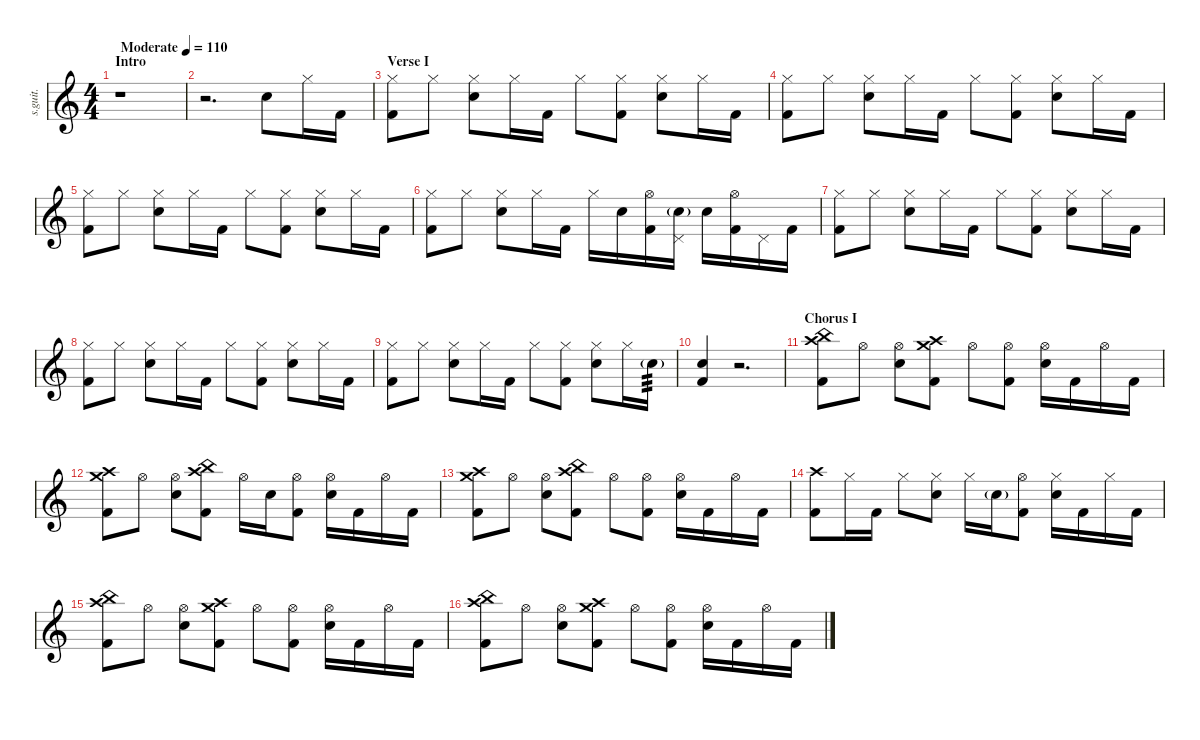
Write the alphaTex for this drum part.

\defaultSystemsLayout 4
\hideDynamics
\bracketExtendMode nobrackets
\track ("John Otto" "s.guit.") {instrument percussion}
\staff {score}
\articulation defaults
\ts (4 4)
\beaming (8 2 2 2 2)
\section ("" "Intro")
\tempo (110 "Moderate")
\clef g2
\ks c
r.1{dy ff} |
r.2{d} "Snare (hit) 2".8{lyrics (0 "") lyrics (1 "") lyrics (2 "") lyrics (3 "") lyrics (4 "")} "Hi-Hat (closed)".16{lyrics (0 "") lyrics (1 "") lyrics (2 "") lyrics (3 "") lyrics (4 "")} "Kick (hit) 2".16{lyrics (0 "") lyrics (1 "") lyrics (2 "") lyrics (3 "") lyrics (4 "")} |
\section ("" "Verse I")
("Kick (hit) 2" "Hi-Hat (closed)").8{lyrics (0 "") lyrics (1 "") lyrics (2 "") lyrics (3 "") lyrics (4 "")} "Hi-Hat (closed)".8{lyrics (0 "") lyrics (1 "") lyrics (2 "") lyrics (3 "") lyrics (4 "")} ("Hi-Hat (closed)" "Snare (hit) 2").8{lyrics (0 "") lyrics (1 "") lyrics (2 "") lyrics (3 "") lyrics (4 "")} "Hi-Hat (closed)".16{lyrics (0 "") lyrics (1 "") lyrics (2 "") lyrics (3 "") lyrics (4 "")} "Kick (hit) 2".16{lyrics (0 "") lyrics (1 "") lyrics (2 "") lyrics (3 "") lyrics (4 "")} "Hi-Hat (closed)".8{lyrics (0 "") lyrics (1 "") lyrics (2 "") lyrics (3 "") lyrics (4 "")} ("Kick (hit) 2" "Hi-Hat (closed)").8{lyrics (0 "") lyrics (1 "") lyrics (2 "") lyrics (3 "") lyrics (4 "")} ("Hi-Hat (closed)" "Snare (hit) 2").8{lyrics (0 "") lyrics (1 "") lyrics (2 "") lyrics (3 "") lyrics (4 "")} "Hi-Hat (closed)".16{lyrics (0 "") lyrics (1 "") lyrics (2 "") lyrics (3 "") lyrics (4 "")} "Kick (hit) 2".16{lyrics (0 "") lyrics (1 "") lyrics (2 "") lyrics (3 "") lyrics (4 "")} |
("Kick (hit) 2" "Hi-Hat (closed)").8{lyrics (0 "") lyrics (1 "") lyrics (2 "") lyrics (3 "") lyrics (4 "")} "Hi-Hat (closed)".8{lyrics (0 "") lyrics (1 "") lyrics (2 "") lyrics (3 "") lyrics (4 "")} ("Hi-Hat (closed)" "Snare (hit) 2").8{lyrics (0 "") lyrics (1 "") lyrics (2 "") lyrics (3 "") lyrics (4 "")} "Hi-Hat (closed)".16{lyrics (0 "") lyrics (1 "") lyrics (2 "") lyrics (3 "") lyrics (4 "")} "Kick (hit) 2".16{lyrics (0 "") lyrics (1 "") lyrics (2 "") lyrics (3 "") lyrics (4 "")} "Hi-Hat (closed)".8{lyrics (0 "") lyrics (1 "") lyrics (2 "") lyrics (3 "") lyrics (4 "")} ("Kick (hit) 2" "Hi-Hat (closed)").8{lyrics (0 "") lyrics (1 "") lyrics (2 "") lyrics (3 "") lyrics (4 "")} ("Hi-Hat (closed)" "Snare (hit) 2").8{lyrics (0 "") lyrics (1 "") lyrics (2 "") lyrics (3 "") lyrics (4 "")} "Hi-Hat (closed)".16{lyrics (0 "") lyrics (1 "") lyrics (2 "") lyrics (3 "") lyrics (4 "")} "Kick (hit) 2".16{lyrics (0 "") lyrics (1 "") lyrics (2 "") lyrics (3 "") lyrics (4 "")} |
("Kick (hit) 2" "Hi-Hat (closed)").8{lyrics (0 "") lyrics (1 "") lyrics (2 "") lyrics (3 "") lyrics (4 "")} "Hi-Hat (closed)".8{lyrics (0 "") lyrics (1 "") lyrics (2 "") lyrics (3 "") lyrics (4 "")} ("Hi-Hat (closed)" "Snare (hit) 2").8{lyrics (0 "") lyrics (1 "") lyrics (2 "") lyrics (3 "") lyrics (4 "")} "Hi-Hat (closed)".16{lyrics (0 "") lyrics (1 "") lyrics (2 "") lyrics (3 "") lyrics (4 "")} "Kick (hit) 2".16{lyrics (0 "") lyrics (1 "") lyrics (2 "") lyrics (3 "") lyrics (4 "")} "Hi-Hat (closed)".8{lyrics (0 "") lyrics (1 "") lyrics (2 "") lyrics (3 "") lyrics (4 "")} ("Kick (hit) 2" "Hi-Hat (closed)").8{lyrics (0 "") lyrics (1 "") lyrics (2 "") lyrics (3 "") lyrics (4 "")} ("Hi-Hat (closed)" "Snare (hit) 2").8{lyrics (0 "") lyrics (1 "") lyrics (2 "") lyrics (3 "") lyrics (4 "")} "Hi-Hat (closed)".16{lyrics (0 "") lyrics (1 "") lyrics (2 "") lyrics (3 "") lyrics (4 "")} "Kick (hit) 2".16{lyrics (0 "") lyrics (1 "") lyrics (2 "") lyrics (3 "") lyrics (4 "")} |
("Kick (hit) 2" "Hi-Hat (closed)").8{lyrics (0 "") lyrics (1 "") lyrics (2 "") lyrics (3 "") lyrics (4 "")} "Hi-Hat (closed)".8{lyrics (0 "") lyrics (1 "") lyrics (2 "") lyrics (3 "") lyrics (4 "")} ("Hi-Hat (closed)" "Snare (hit) 2").8{lyrics (0 "") lyrics (1 "") lyrics (2 "") lyrics (3 "") lyrics (4 "")} "Hi-Hat (closed)".16{lyrics (0 "") lyrics (1 "") lyrics (2 "") lyrics (3 "") lyrics (4 "")} "Kick (hit) 2".16{lyrics (0 "") lyrics (1 "") lyrics (2 "") lyrics (3 "") lyrics (4 "")} "Hi-Hat (closed)".16{lyrics (0 "") lyrics (1 "") lyrics (2 "") lyrics (3 "") lyrics (4 "")} "Snare (hit) 2".16{lyrics (0 "") lyrics (1 "") lyrics (2 "") lyrics (3 "") lyrics (4 "")} ("Kick (hit) 2" "Hi-Hat (open)").16{lyrics (0 "") lyrics (1 "") lyrics (2 "") lyrics (3 "") lyrics (4 "")} ("Pedal Hi-Hat (hit)" "Snare (hit) 2"{g}).16{lyrics (0 "") lyrics (1 "") lyrics (2 "") lyrics (3 "") lyrics (4 "")} "Snare (hit) 2".16{lyrics (0 "") lyrics (1 "") lyrics (2 "") lyrics (3 "") lyrics (4 "")} ("Kick (hit) 2" "Hi-Hat (open)").16{lyrics (0 "") lyrics (1 "") lyrics (2 "") lyrics (3 "") lyrics (4 "")} "Pedal Hi-Hat (hit)".16{lyrics (0 "") lyrics (1 "") lyrics (2 "") lyrics (3 "") lyrics (4 "")} "Kick (hit) 2".16{lyrics (0 "") lyrics (1 "") lyrics (2 "") lyrics (3 "") lyrics (4 "")} |
("Kick (hit) 2" "Hi-Hat (closed)").8{lyrics (0 "") lyrics (1 "") lyrics (2 "") lyrics (3 "") lyrics (4 "")} "Hi-Hat (closed)".8{lyrics (0 "") lyrics (1 "") lyrics (2 "") lyrics (3 "") lyrics (4 "")} ("Hi-Hat (closed)" "Snare (hit) 2").8{lyrics (0 "") lyrics (1 "") lyrics (2 "") lyrics (3 "") lyrics (4 "")} "Hi-Hat (closed)".16{lyrics (0 "") lyrics (1 "") lyrics (2 "") lyrics (3 "") lyrics (4 "")} "Kick (hit) 2".16{lyrics (0 "") lyrics (1 "") lyrics (2 "") lyrics (3 "") lyrics (4 "")} "Hi-Hat (closed)".8{lyrics (0 "") lyrics (1 "") lyrics (2 "") lyrics (3 "") lyrics (4 "")} ("Kick (hit) 2" "Hi-Hat (closed)").8{lyrics (0 "") lyrics (1 "") lyrics (2 "") lyrics (3 "") lyrics (4 "")} ("Hi-Hat (closed)" "Snare (hit) 2").8{lyrics (0 "") lyrics (1 "") lyrics (2 "") lyrics (3 "") lyrics (4 "")} "Hi-Hat (closed)".16{lyrics (0 "") lyrics (1 "") lyrics (2 "") lyrics (3 "") lyrics (4 "")} "Kick (hit) 2".16{lyrics (0 "") lyrics (1 "") lyrics (2 "") lyrics (3 "") lyrics (4 "")} |
("Kick (hit) 2" "Hi-Hat (closed)").8{lyrics (0 "") lyrics (1 "") lyrics (2 "") lyrics (3 "") lyrics (4 "")} "Hi-Hat (closed)".8{lyrics (0 "") lyrics (1 "") lyrics (2 "") lyrics (3 "") lyrics (4 "")} ("Hi-Hat (closed)" "Snare (hit) 2").8{lyrics (0 "") lyrics (1 "") lyrics (2 "") lyrics (3 "") lyrics (4 "")} "Hi-Hat (closed)".16{lyrics (0 "") lyrics (1 "") lyrics (2 "") lyrics (3 "") lyrics (4 "")} "Kick (hit) 2".16{lyrics (0 "") lyrics (1 "") lyrics (2 "") lyrics (3 "") lyrics (4 "")} "Hi-Hat (closed)".8{lyrics (0 "") lyrics (1 "") lyrics (2 "") lyrics (3 "") lyrics (4 "")} ("Kick (hit) 2" "Hi-Hat (closed)").8{lyrics (0 "") lyrics (1 "") lyrics (2 "") lyrics (3 "") lyrics (4 "")} ("Hi-Hat (closed)" "Snare (hit) 2").8{lyrics (0 "") lyrics (1 "") lyrics (2 "") lyrics (3 "") lyrics (4 "")} "Hi-Hat (closed)".16{lyrics (0 "") lyrics (1 "") lyrics (2 "") lyrics (3 "") lyrics (4 "")} "Kick (hit) 2".16{lyrics (0 "") lyrics (1 "") lyrics (2 "") lyrics (3 "") lyrics (4 "")} |
("Kick (hit) 2" "Hi-Hat (closed)").8{lyrics (0 "") lyrics (1 "") lyrics (2 "") lyrics (3 "") lyrics (4 "")} "Hi-Hat (closed)".8{lyrics (0 "") lyrics (1 "") lyrics (2 "") lyrics (3 "") lyrics (4 "")} ("Hi-Hat (closed)" "Snare (hit) 2").8{lyrics (0 "") lyrics (1 "") lyrics (2 "") lyrics (3 "") lyrics (4 "")} "Hi-Hat (closed)".16{lyrics (0 "") lyrics (1 "") lyrics (2 "") lyrics (3 "") lyrics (4 "")} "Kick (hit) 2".16{lyrics (0 "") lyrics (1 "") lyrics (2 "") lyrics (3 "") lyrics (4 "")} "Hi-Hat (closed)".8{lyrics (0 "") lyrics (1 "") lyrics (2 "") lyrics (3 "") lyrics (4 "")} ("Kick (hit) 2" "Hi-Hat (closed)").8{lyrics (0 "") lyrics (1 "") lyrics (2 "") lyrics (3 "") lyrics (4 "")} ("Hi-Hat (closed)" "Snare (hit) 2").8{lyrics (0 "") lyrics (1 "") lyrics (2 "") lyrics (3 "") lyrics (4 "")} "Hi-Hat (closed)".16{lyrics (0 "") lyrics (1 "") lyrics (2 "") lyrics (3 "") lyrics (4 "")} "Snare (hit) 2"{g}.16{lyrics (0 "") lyrics (1 "") lyrics (2 "") lyrics (3 "") lyrics (4 "") tp 3} |
("Kick (hit) 2" "Snare (hit) 2").4{lyrics (0 "") lyrics (1 "") lyrics (2 "") lyrics (3 "") lyrics (4 "")} r.2{d} |
\section ("" "Chorus I")
("Crash high (hit)" "Kick (hit) 2" "China (hit)").8{lyrics (0 "") lyrics (1 "") lyrics (2 "") lyrics (3 "") lyrics (4 "")} "Hi-Hat (open)".8{lyrics (0 "") lyrics (1 "") lyrics (2 "") lyrics (3 "") lyrics (4 "")} ("Hi-Hat (open)" "Snare (hit) 2").8{lyrics (0 "") lyrics (1 "") lyrics (2 "") lyrics (3 "") lyrics (4 "")} ("Crash high (hit)" "Kick (hit) 2" "Crash medium (hit)").8{lyrics (0 "") lyrics (1 "") lyrics (2 "") lyrics (3 "") lyrics (4 "")} "Hi-Hat (open)".8{lyrics (0 "") lyrics (1 "") lyrics (2 "") lyrics (3 "") lyrics (4 "")} ("Hi-Hat (open)" "Kick (hit) 2").8{lyrics (0 "") lyrics (1 "") lyrics (2 "") lyrics (3 "") lyrics (4 "")} ("Hi-Hat (open)" "Snare (hit) 2").16{lyrics (0 "") lyrics (1 "") lyrics (2 "") lyrics (3 "") lyrics (4 "")} "Kick (hit) 2".16{lyrics (0 "") lyrics (1 "") lyrics (2 "") lyrics (3 "") lyrics (4 "")} "Hi-Hat (open)".16{lyrics (0 "") lyrics (1 "") lyrics (2 "") lyrics (3 "") lyrics (4 "")} "Kick (hit) 2".16{lyrics (0 "") lyrics (1 "") lyrics (2 "") lyrics (3 "") lyrics (4 "")} |
("Kick (hit) 2" "Crash medium (hit)" "Crash high (hit)").8{lyrics (0 "") lyrics (1 "") lyrics (2 "") lyrics (3 "") lyrics (4 "")} "Hi-Hat (open)".8{lyrics (0 "") lyrics (1 "") lyrics (2 "") lyrics (3 "") lyrics (4 "")} ("Hi-Hat (open)" "Snare (hit) 2").8{lyrics (0 "") lyrics (1 "") lyrics (2 "") lyrics (3 "") lyrics (4 "")} ("Crash high (hit)" "Kick (hit) 2" "China (hit)").8{lyrics (0 "") lyrics (1 "") lyrics (2 "") lyrics (3 "") lyrics (4 "")} "Hi-Hat (open)".16{lyrics (0 "") lyrics (1 "") lyrics (2 "") lyrics (3 "") lyrics (4 "")} "Snare (hit) 2".16{lyrics (0 "") lyrics (1 "") lyrics (2 "") lyrics (3 "") lyrics (4 "")} ("Hi-Hat (open)" "Kick (hit) 2").8{lyrics (0 "") lyrics (1 "") lyrics (2 "") lyrics (3 "") lyrics (4 "")} ("Hi-Hat (open)" "Snare (hit) 2").16{lyrics (0 "") lyrics (1 "") lyrics (2 "") lyrics (3 "") lyrics (4 "")} "Kick (hit) 2".16{lyrics (0 "") lyrics (1 "") lyrics (2 "") lyrics (3 "") lyrics (4 "")} "Hi-Hat (open)".16{lyrics (0 "") lyrics (1 "") lyrics (2 "") lyrics (3 "") lyrics (4 "")} "Kick (hit) 2".16{lyrics (0 "") lyrics (1 "") lyrics (2 "") lyrics (3 "") lyrics (4 "")} |
("Kick (hit) 2" "Crash medium (hit)" "Crash high (hit)").8{lyrics (0 "") lyrics (1 "") lyrics (2 "") lyrics (3 "") lyrics (4 "")} "Hi-Hat (open)".8{lyrics (0 "") lyrics (1 "") lyrics (2 "") lyrics (3 "") lyrics (4 "")} ("Hi-Hat (open)" "Snare (hit) 2").8{lyrics (0 "") lyrics (1 "") lyrics (2 "") lyrics (3 "") lyrics (4 "")} ("Crash high (hit)" "Kick (hit) 2" "China (hit)").8{lyrics (0 "") lyrics (1 "") lyrics (2 "") lyrics (3 "") lyrics (4 "")} "Hi-Hat (open)".8{lyrics (0 "") lyrics (1 "") lyrics (2 "") lyrics (3 "") lyrics (4 "")} ("Hi-Hat (open)" "Kick (hit) 2").8{lyrics (0 "") lyrics (1 "") lyrics (2 "") lyrics (3 "") lyrics (4 "")} ("Hi-Hat (open)" "Snare (hit) 2").16{lyrics (0 "") lyrics (1 "") lyrics (2 "") lyrics (3 "") lyrics (4 "")} "Kick (hit) 2".16{lyrics (0 "") lyrics (1 "") lyrics (2 "") lyrics (3 "") lyrics (4 "")} "Hi-Hat (open)".16{lyrics (0 "") lyrics (1 "") lyrics (2 "") lyrics (3 "") lyrics (4 "")} "Kick (hit) 2".16{lyrics (0 "") lyrics (1 "") lyrics (2 "") lyrics (3 "") lyrics (4 "")} |
("Kick (hit) 2" "Crash high (hit)").8{lyrics (0 "") lyrics (1 "") lyrics (2 "") lyrics (3 "") lyrics (4 "")} "Hi-Hat (closed)".16{lyrics (0 "") lyrics (1 "") lyrics (2 "") lyrics (3 "") lyrics (4 "")} "Kick (hit) 2".16{lyrics (0 "") lyrics (1 "") lyrics (2 "") lyrics (3 "") lyrics (4 "")} "Hi-Hat (closed)".8{lyrics (0 "") lyrics (1 "") lyrics (2 "") lyrics (3 "") lyrics (4 "")} ("Hi-Hat (closed)" "Snare (hit) 2").8{lyrics (0 "") lyrics (1 "") lyrics (2 "") lyrics (3 "") lyrics (4 "")} "Hi-Hat (closed)".16{lyrics (0 "") lyrics (1 "") lyrics (2 "") lyrics (3 "") lyrics (4 "")} "Snare (hit) 2"{g}.16{lyrics (0 "") lyrics (1 "") lyrics (2 "") lyrics (3 "") lyrics (4 "")} ("Hi-Hat (open)" "Kick (hit) 2").8{lyrics (0 "") lyrics (1 "") lyrics (2 "") lyrics (3 "") lyrics (4 "")} ("Hi-Hat (closed)" "Snare (hit) 2").16{lyrics (0 "") lyrics (1 "") lyrics (2 "") lyrics (3 "") lyrics (4 "")} "Kick (hit) 2".16{lyrics (0 "") lyrics (1 "") lyrics (2 "") lyrics (3 "") lyrics (4 "")} "Hi-Hat (closed)".16{lyrics (0 "") lyrics (1 "") lyrics (2 "") lyrics (3 "") lyrics (4 "")} "Kick (hit) 2".16{lyrics (0 "") lyrics (1 "") lyrics (2 "") lyrics (3 "") lyrics (4 "")} |
("Crash high (hit)" "Kick (hit) 2" "China (hit)").8{lyrics (0 "") lyrics (1 "") lyrics (2 "") lyrics (3 "") lyrics (4 "")} "Hi-Hat (open)".8{lyrics (0 "") lyrics (1 "") lyrics (2 "") lyrics (3 "") lyrics (4 "")} ("Hi-Hat (open)" "Snare (hit) 2").8{lyrics (0 "") lyrics (1 "") lyrics (2 "") lyrics (3 "") lyrics (4 "")} ("Crash high (hit)" "Kick (hit) 2" "Crash medium (hit)").8{lyrics (0 "") lyrics (1 "") lyrics (2 "") lyrics (3 "") lyrics (4 "")} "Hi-Hat (open)".8{lyrics (0 "") lyrics (1 "") lyrics (2 "") lyrics (3 "") lyrics (4 "")} ("Hi-Hat (open)" "Kick (hit) 2").8{lyrics (0 "") lyrics (1 "") lyrics (2 "") lyrics (3 "") lyrics (4 "")} ("Hi-Hat (open)" "Snare (hit) 2").16{lyrics (0 "") lyrics (1 "") lyrics (2 "") lyrics (3 "") lyrics (4 "")} "Kick (hit) 2".16{lyrics (0 "") lyrics (1 "") lyrics (2 "") lyrics (3 "") lyrics (4 "")} "Hi-Hat (open)".16{lyrics (0 "") lyrics (1 "") lyrics (2 "") lyrics (3 "") lyrics (4 "")} "Kick (hit) 2".16{lyrics (0 "") lyrics (1 "") lyrics (2 "") lyrics (3 "") lyrics (4 "")} |
("Kick (hit) 2" "China (hit)" "Crash high (hit)").8{lyrics (0 "") lyrics (1 "") lyrics (2 "") lyrics (3 "") lyrics (4 "")} "Hi-Hat (open)".8{lyrics (0 "") lyrics (1 "") lyrics (2 "") lyrics (3 "") lyrics (4 "")} ("Hi-Hat (open)" "Snare (hit) 2").8{lyrics (0 "") lyrics (1 "") lyrics (2 "") lyrics (3 "") lyrics (4 "")} ("Crash high (hit)" "Kick (hit) 2" "Crash medium (hit)").8{lyrics (0 "") lyrics (1 "") lyrics (2 "") lyrics (3 "") lyrics (4 "")} "Hi-Hat (open)".8{lyrics (0 "") lyrics (1 "") lyrics (2 "") lyrics (3 "") lyrics (4 "")} ("Hi-Hat (open)" "Kick (hit) 2").8{lyrics (0 "") lyrics (1 "") lyrics (2 "") lyrics (3 "") lyrics (4 "")} ("Hi-Hat (open)" "Snare (hit) 2").16{lyrics (0 "") lyrics (1 "") lyrics (2 "") lyrics (3 "") lyrics (4 "")} "Kick (hit) 2".16{lyrics (0 "") lyrics (1 "") lyrics (2 "") lyrics (3 "") lyrics (4 "")} "Hi-Hat (open)".16{lyrics (0 "") lyrics (1 "") lyrics (2 "") lyrics (3 "") lyrics (4 "")} "Kick (hit) 2".16{lyrics (0 "") lyrics (1 "") lyrics (2 "") lyrics (3 "") lyrics (4 "")}
